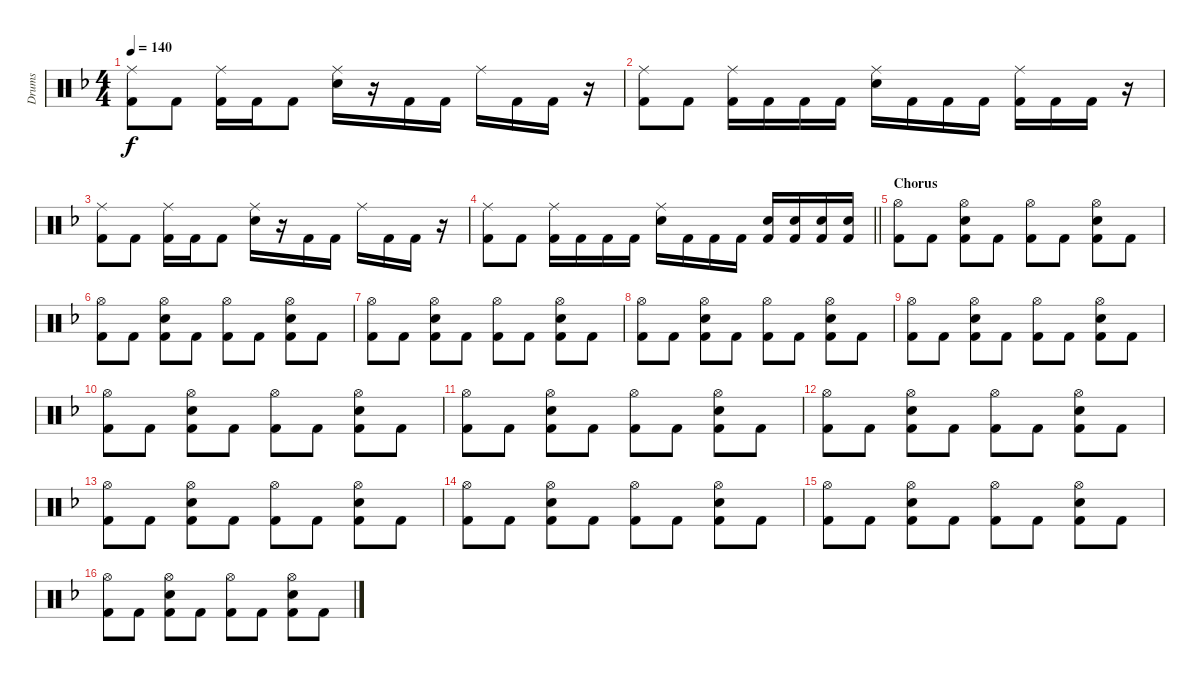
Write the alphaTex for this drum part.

\track ("Drums" "Drums") {instrument percussion}
\staff {score}
\articulation defaults
\ts (4 4)
\tempo 140
\clef neutral
\ks dminor
("Ride (middle)" "Kick (hit) 2").8{dy f} "Kick (hit) 2".8 ("Ride (middle)" "Kick (hit) 2").16 "Kick (hit) 2".16 "Kick (hit) 2".8 ("Ride (middle)" "Snare (hit) 2").16 r.16 "Kick (hit) 2".16 "Kick (hit) 2".16 "Ride (middle)".16 "Kick (hit) 2".16 "Kick (hit) 2".16 r.16 |
("Ride (middle)" "Kick (hit) 2").8 "Kick (hit) 2".8 ("Ride (middle)" "Kick (hit) 2").16 "Kick (hit) 2".16 "Kick (hit) 2".16 "Kick (hit) 2".16 ("Ride (middle)" "Snare (hit) 2").16 "Kick (hit) 2".16 "Kick (hit) 2".16 "Kick (hit) 2".16 ("Ride (middle)" "Kick (hit) 2").16 "Kick (hit) 2".16 "Kick (hit) 2".16 r.16 |
("Ride (middle)" "Kick (hit) 2").8 "Kick (hit) 2".8 ("Ride (middle)" "Kick (hit) 2").16 "Kick (hit) 2".16 "Kick (hit) 2".8 ("Ride (middle)" "Snare (hit) 2").16 r.16 "Kick (hit) 2".16 "Kick (hit) 2".16 "Ride (middle)".16 "Kick (hit) 2".16 "Kick (hit) 2".16 r.16 |
\barLineRight lightlight
("Ride (middle)" "Kick (hit) 2").8 "Kick (hit) 2".8 ("Ride (middle)" "Kick (hit) 2").16 "Kick (hit) 2".16 "Kick (hit) 2".16 "Kick (hit) 2".16 ("Ride (middle)" "Snare (hit) 2").16 "Kick (hit) 2".16 "Kick (hit) 2".16 "Kick (hit) 2".16 ("Snare (hit) 2" "Kick (hit) 2").16 ("Snare (hit) 2" "Kick (hit) 2").16 ("Snare (hit) 2" "Kick (hit) 2").16 ("Snare (hit) 2" "Kick (hit) 2").16 |
\section ("" "Chorus")
("Hi-Hat (open)" "Kick (hit) 2").8 "Kick (hit) 2".8 ("Hi-Hat (open)" "Snare (hit) 2" "Kick (hit) 2").8 "Kick (hit) 2".8 ("Hi-Hat (open)" "Kick (hit) 2").8 "Kick (hit) 2".8 ("Hi-Hat (open)" "Snare (hit) 2" "Kick (hit) 2").8 "Kick (hit) 2".8 |
("Hi-Hat (open)" "Kick (hit) 2").8 "Kick (hit) 2".8 ("Hi-Hat (open)" "Snare (hit) 2" "Kick (hit) 2").8 "Kick (hit) 2".8 ("Hi-Hat (open)" "Kick (hit) 2").8 "Kick (hit) 2".8 ("Hi-Hat (open)" "Snare (hit) 2" "Kick (hit) 2").8 "Kick (hit) 2".8 |
("Hi-Hat (open)" "Kick (hit) 2").8 "Kick (hit) 2".8 ("Hi-Hat (open)" "Snare (hit) 2" "Kick (hit) 2").8 "Kick (hit) 2".8 ("Hi-Hat (open)" "Kick (hit) 2").8 "Kick (hit) 2".8 ("Hi-Hat (open)" "Snare (hit) 2" "Kick (hit) 2").8 "Kick (hit) 2".8 |
("Hi-Hat (open)" "Kick (hit) 2").8 "Kick (hit) 2".8 ("Hi-Hat (open)" "Snare (hit) 2" "Kick (hit) 2").8 "Kick (hit) 2".8 ("Hi-Hat (open)" "Kick (hit) 2").8 "Kick (hit) 2".8 ("Hi-Hat (open)" "Snare (hit) 2" "Kick (hit) 2").8 "Kick (hit) 2".8 |
("Hi-Hat (open)" "Kick (hit) 2").8 "Kick (hit) 2".8 ("Hi-Hat (open)" "Snare (hit) 2" "Kick (hit) 2").8 "Kick (hit) 2".8 ("Hi-Hat (open)" "Kick (hit) 2").8 "Kick (hit) 2".8 ("Hi-Hat (open)" "Snare (hit) 2" "Kick (hit) 2").8 "Kick (hit) 2".8 |
("Hi-Hat (open)" "Kick (hit) 2").8 "Kick (hit) 2".8 ("Hi-Hat (open)" "Snare (hit) 2" "Kick (hit) 2").8 "Kick (hit) 2".8 ("Hi-Hat (open)" "Kick (hit) 2").8 "Kick (hit) 2".8 ("Hi-Hat (open)" "Snare (hit) 2" "Kick (hit) 2").8 "Kick (hit) 2".8 |
("Hi-Hat (open)" "Kick (hit) 2").8 "Kick (hit) 2".8 ("Hi-Hat (open)" "Snare (hit) 2" "Kick (hit) 2").8 "Kick (hit) 2".8 ("Hi-Hat (open)" "Kick (hit) 2").8 "Kick (hit) 2".8 ("Hi-Hat (open)" "Snare (hit) 2" "Kick (hit) 2").8 "Kick (hit) 2".8 |
("Hi-Hat (open)" "Kick (hit) 2").8 "Kick (hit) 2".8 ("Hi-Hat (open)" "Snare (hit) 2" "Kick (hit) 2").8 "Kick (hit) 2".8 ("Hi-Hat (open)" "Kick (hit) 2").8 "Kick (hit) 2".8 ("Hi-Hat (open)" "Snare (hit) 2" "Kick (hit) 2").8 "Kick (hit) 2".8 |
("Hi-Hat (open)" "Kick (hit) 2").8 "Kick (hit) 2".8 ("Hi-Hat (open)" "Snare (hit) 2" "Kick (hit) 2").8 "Kick (hit) 2".8 ("Hi-Hat (open)" "Kick (hit) 2").8 "Kick (hit) 2".8 ("Hi-Hat (open)" "Snare (hit) 2" "Kick (hit) 2").8 "Kick (hit) 2".8 |
("Hi-Hat (open)" "Kick (hit) 2").8 "Kick (hit) 2".8 ("Hi-Hat (open)" "Snare (hit) 2" "Kick (hit) 2").8 "Kick (hit) 2".8 ("Hi-Hat (open)" "Kick (hit) 2").8 "Kick (hit) 2".8 ("Hi-Hat (open)" "Snare (hit) 2" "Kick (hit) 2").8 "Kick (hit) 2".8 |
("Hi-Hat (open)" "Kick (hit) 2").8 "Kick (hit) 2".8 ("Hi-Hat (open)" "Snare (hit) 2" "Kick (hit) 2").8 "Kick (hit) 2".8 ("Hi-Hat (open)" "Kick (hit) 2").8 "Kick (hit) 2".8 ("Hi-Hat (open)" "Snare (hit) 2" "Kick (hit) 2").8 "Kick (hit) 2".8 |
("Hi-Hat (open)" "Kick (hit) 2").8 "Kick (hit) 2".8 ("Hi-Hat (open)" "Snare (hit) 2" "Kick (hit) 2").8 "Kick (hit) 2".8 ("Hi-Hat (open)" "Kick (hit) 2").8 "Kick (hit) 2".8 ("Hi-Hat (open)" "Snare (hit) 2" "Kick (hit) 2").8 "Kick (hit) 2".8
